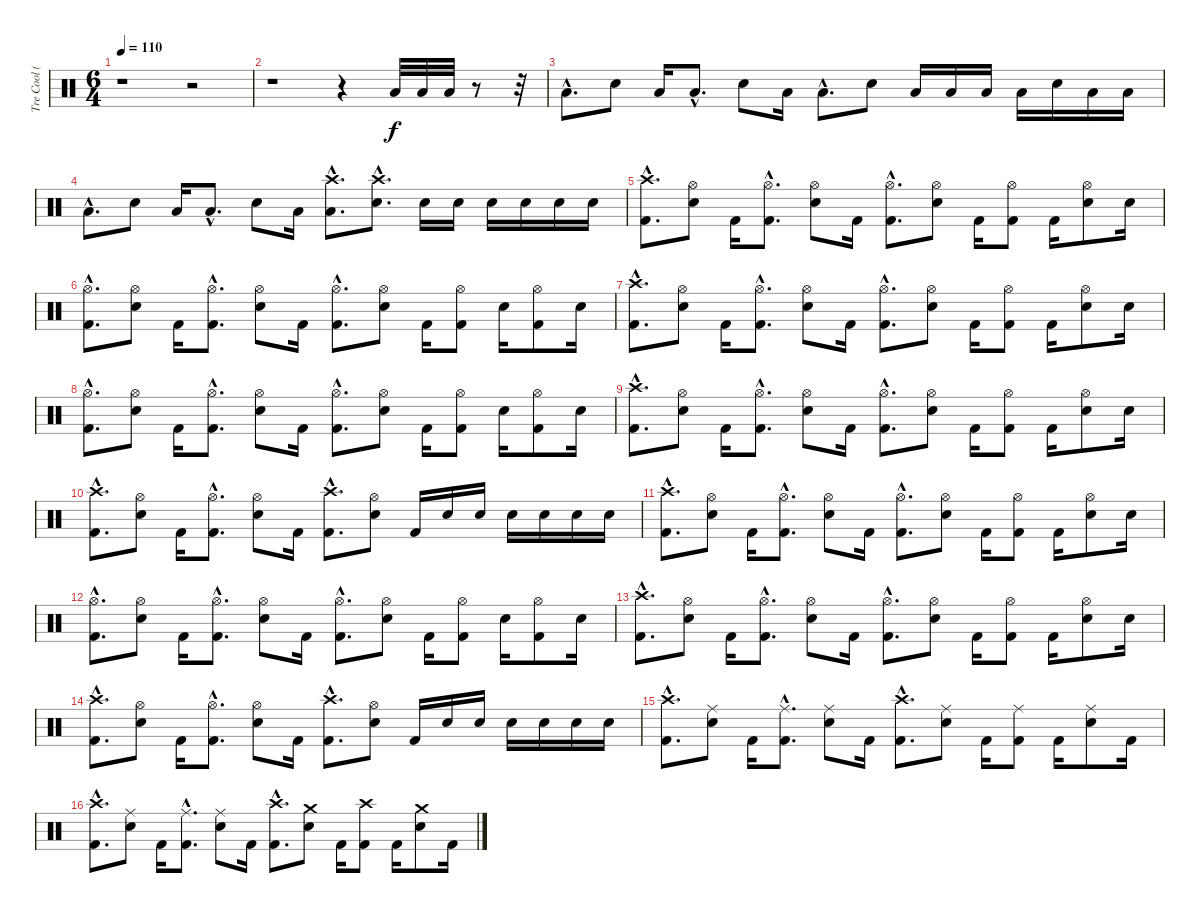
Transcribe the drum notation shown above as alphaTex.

\track ("Tre Cool (Drums)" "Tre Cool (") {instrument percussion}
\staff {score}
\articulation defaults
\ts (6 4)
\tempo 110
\clef neutral
\ks c
r.1{dy f} r.2 |
r.1 r.4 "Low Floor Tom (hit)".32 "Low Floor Tom (hit)".32 "Low Floor Tom (hit)".32 r.8 r.32 |
"Low Floor Tom (hit)"{hac}.8{d} "Electric Snare (hit)".8 "Low Floor Tom (hit)".16 "Low Floor Tom (hit)"{hac}.8{d} "Electric Snare (hit)".8 "Low Floor Tom (hit)".16 "Low Floor Tom (hit)"{hac}.8{d} "Electric Snare (hit)".8 "Low Floor Tom (hit)".16 "Low Floor Tom (hit)".16 "Low Floor Tom (hit)".16 "Low Floor Tom (hit)".16 "Electric Snare (hit)".16 "Low Floor Tom (hit)".16 "Low Floor Tom (hit)".16 |
"Low Floor Tom (hit)"{hac}.8{d} "Electric Snare (hit)".8 "Low Floor Tom (hit)".16 "Low Floor Tom (hit)"{hac}.8{d} "Electric Snare (hit)".8 "Low Floor Tom (hit)".16 ("Crash high (hit)"{hac} "Low Floor Tom (hit)"{hac}).8{d} ("Crash high (hit)"{hac} "Electric Snare (hit)"{hac}).8{d} "Electric Snare (hit)".16 "Electric Snare (hit)".16 "Electric Snare (hit)".16 "Electric Snare (hit)".16 "Electric Snare (hit)".16 "Electric Snare (hit)".16 |
("Crash high (hit)"{hac} "Kick (hit) 2"{hac}).8{d} ("Hi-Hat (open)" "Electric Snare (hit)").8 "Kick (hit) 2".16 ("Hi-Hat (open)"{hac} "Kick (hit) 2"{hac}).8{d} ("Hi-Hat (open)" "Electric Snare (hit)").8 "Kick (hit) 2".16 ("Hi-Hat (open)"{hac} "Kick (hit) 2"{hac}).8{d} ("Hi-Hat (open)" "Electric Snare (hit)").8 "Kick (hit) 2".16 ("Hi-Hat (open)" "Kick (hit) 2").8 "Kick (hit) 2".16 ("Hi-Hat (open)" "Electric Snare (hit)").8 "Electric Snare (hit)".16 |
("Hi-Hat (open)"{hac} "Kick (hit) 2"{hac}).8{d} ("Hi-Hat (open)" "Electric Snare (hit)").8 "Kick (hit) 2".16 ("Hi-Hat (open)"{hac} "Kick (hit) 2"{hac}).8{d} ("Hi-Hat (open)" "Electric Snare (hit)").8 "Kick (hit) 2".16 ("Hi-Hat (open)"{hac} "Kick (hit) 2"{hac}).8{d} ("Hi-Hat (open)" "Electric Snare (hit)").8 "Kick (hit) 2".16 ("Hi-Hat (open)" "Kick (hit) 2").8 "Electric Snare (hit)".16 ("Hi-Hat (open)" "Kick (hit) 2").8 "Electric Snare (hit)".16 |
("Crash high (hit)"{hac} "Kick (hit) 2"{hac}).8{d} ("Hi-Hat (open)" "Electric Snare (hit)").8 "Kick (hit) 2".16 ("Hi-Hat (open)"{hac} "Kick (hit) 2"{hac}).8{d} ("Hi-Hat (open)" "Electric Snare (hit)").8 "Kick (hit) 2".16 ("Hi-Hat (open)"{hac} "Kick (hit) 2"{hac}).8{d} ("Hi-Hat (open)" "Electric Snare (hit)").8 "Kick (hit) 2".16 ("Hi-Hat (open)" "Kick (hit) 2").8 "Kick (hit) 2".16 ("Hi-Hat (open)" "Electric Snare (hit)").8 "Electric Snare (hit)".16 |
("Hi-Hat (open)"{hac} "Kick (hit) 2"{hac}).8{d} ("Hi-Hat (open)" "Electric Snare (hit)").8 "Kick (hit) 2".16 ("Hi-Hat (open)"{hac} "Kick (hit) 2"{hac}).8{d} ("Hi-Hat (open)" "Electric Snare (hit)").8 "Kick (hit) 2".16 ("Hi-Hat (open)"{hac} "Kick (hit) 2"{hac}).8{d} ("Hi-Hat (open)" "Electric Snare (hit)").8 "Kick (hit) 2".16 ("Hi-Hat (open)" "Kick (hit) 2").8 "Electric Snare (hit)".16 ("Hi-Hat (open)" "Kick (hit) 2").8 "Electric Snare (hit)".16 |
("Crash high (hit)"{hac} "Kick (hit) 2"{hac}).8{d} ("Hi-Hat (open)" "Electric Snare (hit)").8 "Kick (hit) 2".16 ("Hi-Hat (open)"{hac} "Kick (hit) 2"{hac}).8{d} ("Hi-Hat (open)" "Electric Snare (hit)").8 "Kick (hit) 2".16 ("Hi-Hat (open)"{hac} "Kick (hit) 2"{hac}).8{d} ("Hi-Hat (open)" "Electric Snare (hit)").8 "Kick (hit) 2".16 ("Hi-Hat (open)" "Kick (hit) 2").8 "Kick (hit) 2".16 ("Hi-Hat (open)" "Electric Snare (hit)").8 "Electric Snare (hit)".16 |
("Crash high (hit)"{hac} "Kick (hit) 2"{hac}).8{d} ("Hi-Hat (open)" "Electric Snare (hit)").8 "Kick (hit) 2".16 ("Hi-Hat (open)"{hac} "Kick (hit) 2"{hac}).8{d} ("Hi-Hat (open)" "Electric Snare (hit)").8 "Kick (hit) 2".16 ("Crash high (hit)"{hac} "Kick (hit) 2"{hac}).8{d} ("Hi-Hat (open)" "Electric Snare (hit)").8 "Kick (hit) 2".16 "Electric Snare (hit)".16 "Electric Snare (hit)".16 "Electric Snare (hit)".16 "Electric Snare (hit)".16 "Electric Snare (hit)".16 "Electric Snare (hit)".16 |
("Crash high (hit)"{hac} "Kick (hit) 2"{hac}).8{d} ("Hi-Hat (open)" "Electric Snare (hit)").8 "Kick (hit) 2".16 ("Hi-Hat (open)"{hac} "Kick (hit) 2"{hac}).8{d} ("Hi-Hat (open)" "Electric Snare (hit)").8 "Kick (hit) 2".16 ("Hi-Hat (open)"{hac} "Kick (hit) 2"{hac}).8{d} ("Hi-Hat (open)" "Electric Snare (hit)").8 "Kick (hit) 2".16 ("Hi-Hat (open)" "Kick (hit) 2").8 "Kick (hit) 2".16 ("Hi-Hat (open)" "Electric Snare (hit)").8 "Electric Snare (hit)".16 |
("Hi-Hat (open)"{hac} "Kick (hit) 2"{hac}).8{d} ("Hi-Hat (open)" "Electric Snare (hit)").8 "Kick (hit) 2".16 ("Hi-Hat (open)"{hac} "Kick (hit) 2"{hac}).8{d} ("Hi-Hat (open)" "Electric Snare (hit)").8 "Kick (hit) 2".16 ("Hi-Hat (open)"{hac} "Kick (hit) 2"{hac}).8{d} ("Hi-Hat (open)" "Electric Snare (hit)").8 "Kick (hit) 2".16 ("Hi-Hat (open)" "Kick (hit) 2").8 "Electric Snare (hit)".16 ("Hi-Hat (open)" "Kick (hit) 2").8 "Electric Snare (hit)".16 |
("Crash high (hit)"{hac} "Kick (hit) 2"{hac}).8{d} ("Hi-Hat (open)" "Electric Snare (hit)").8 "Kick (hit) 2".16 ("Hi-Hat (open)"{hac} "Kick (hit) 2"{hac}).8{d} ("Hi-Hat (open)" "Electric Snare (hit)").8 "Kick (hit) 2".16 ("Hi-Hat (open)"{hac} "Kick (hit) 2"{hac}).8{d} ("Hi-Hat (open)" "Electric Snare (hit)").8 "Kick (hit) 2".16 ("Hi-Hat (open)" "Kick (hit) 2").8 "Kick (hit) 2".16 ("Hi-Hat (open)" "Electric Snare (hit)").8 "Electric Snare (hit)".16 |
("Crash high (hit)"{hac} "Kick (hit) 2"{hac}).8{d} ("Hi-Hat (open)" "Electric Snare (hit)").8 "Kick (hit) 2".16 ("Hi-Hat (open)"{hac} "Kick (hit) 2"{hac}).8{d} ("Hi-Hat (open)" "Electric Snare (hit)").8 "Kick (hit) 2".16 ("Crash high (hit)"{hac} "Kick (hit) 2"{hac}).8{d} ("Hi-Hat (open)" "Electric Snare (hit)").8 "Kick (hit) 2".16 "Electric Snare (hit)".16 "Electric Snare (hit)".16 "Electric Snare (hit)".16 "Electric Snare (hit)".16 "Electric Snare (hit)".16 "Electric Snare (hit)".16 |
("Crash high (hit)"{hac} "Kick (hit) 2"{hac}).8{d} ("Ride (middle)" "Electric Snare (hit)").8 "Kick (hit) 2".16 ("Ride (middle)"{hac} "Kick (hit) 2"{hac}).8{d} ("Ride (middle)" "Electric Snare (hit)").8 "Kick (hit) 2".16 ("Crash high (hit)"{hac} "Kick (hit) 2"{hac}).8{d} ("Ride (middle)" "Electric Snare (hit)").8 "Kick (hit) 2".16 ("Ride (middle)" "Kick (hit) 2").8 "Kick (hit) 2".16 ("Ride (middle)" "Electric Snare (hit)").8 "Kick (hit) 2".16 |
("Crash high (hit)"{hac} "Kick (hit) 2"{hac}).8{d} ("Ride (middle)" "Electric Snare (hit)").8 "Kick (hit) 2".16 ("Ride (middle)"{hac} "Kick (hit) 2"{hac}).8{d} ("Ride (middle)" "Electric Snare (hit)").8 "Kick (hit) 2".16 ("Crash high (hit)"{hac} "Kick (hit) 2"{hac}).8{d} ("Crash medium (hit)" "Electric Snare (hit)").8 "Kick (hit) 2".16 ("Crash high (hit)" "Kick (hit) 2").8 "Kick (hit) 2".16 ("Crash medium (hit)" "Electric Snare (hit)").8 "Kick (hit) 2".16
